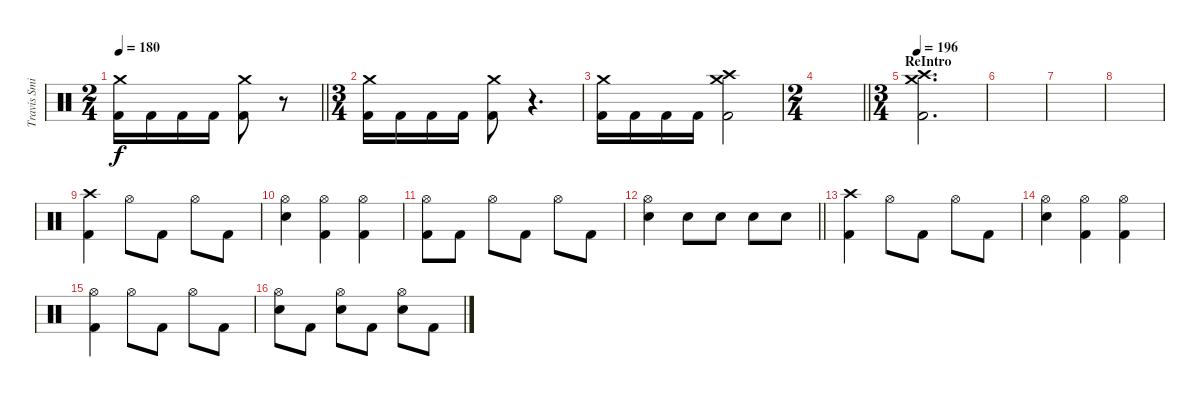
\track ("Travis Smith" "Travis Smi") {instrument percussion}
\staff {score}
\articulation defaults
\ts (2 4)
\tempo 180
\clef neutral
\barLineRight lightlight
\ks c
("Crash medium (hit)" "Kick (hit) 2").16{dy f volume 13} "Kick (hit) 2".16 "Kick (hit) 2".16 "Kick (hit) 2".16 ("Crash medium (hit)" "Kick (hit) 2").8 r.8{volume 0} |
\ts (3 4)
("Crash medium (hit)" "Kick (hit) 2").16{volume 13} "Kick (hit) 2".16 "Kick (hit) 2".16 "Kick (hit) 2".16 ("Crash medium (hit)" "Kick (hit) 2").8 r.4{d volume 0} |
("Crash medium (hit)" "Kick (hit) 2").16{volume 13} "Kick (hit) 2".16 "Kick (hit) 2".16 "Kick (hit) 2".16 ("Crash medium (hit)" "Crash high (hit)" "Kick (hit) 2").2 |
\ts (2 4)
\barLineRight lightlight
|
\ts (3 4)
\section ("" "ReIntro")
\tempo 196
("Crash medium (hit)" "Crash high (hit)" "Kick (hit) 2").2{d} |
|
|
|
("Crash high (hit)" "Kick (hit) 2").4 "Hi-Hat (open)".8 "Kick (hit) 2".8 "Hi-Hat (open)".8 "Kick (hit) 2".8 |
("Hi-Hat (open)" "Electric Snare (hit)").4 ("Hi-Hat (open)" "Kick (hit) 2").4 ("Hi-Hat (open)" "Kick (hit) 2").4 |
("Hi-Hat (open)" "Kick (hit) 2").8 "Kick (hit) 2".8 "Hi-Hat (open)".8 "Kick (hit) 2".8 "Hi-Hat (open)".8 "Kick (hit) 2".8 |
\barLineRight lightlight
("Hi-Hat (open)" "Electric Snare (hit)").4 "Electric Snare (hit)".8 "Electric Snare (hit)".8 "Electric Snare (hit)".8 "Electric Snare (hit)".8 |
("Crash high (hit)" "Kick (hit) 2").4 "Hi-Hat (open)".8 "Kick (hit) 2".8 "Hi-Hat (open)".8 "Kick (hit) 2".8 |
("Hi-Hat (open)" "Electric Snare (hit)").4 ("Hi-Hat (open)" "Kick (hit) 2").4 ("Hi-Hat (open)" "Kick (hit) 2").4 |
("Hi-Hat (open)" "Kick (hit) 2").4 "Hi-Hat (open)".8 "Kick (hit) 2".8 "Hi-Hat (open)".8 "Kick (hit) 2".8 |
("Hi-Hat (open)" "Electric Snare (hit)").8 "Kick (hit) 2".8 ("Hi-Hat (open)" "Electric Snare (hit)").8 "Kick (hit) 2".8 ("Hi-Hat (open)" "Electric Snare (hit)").8 "Kick (hit) 2".8
